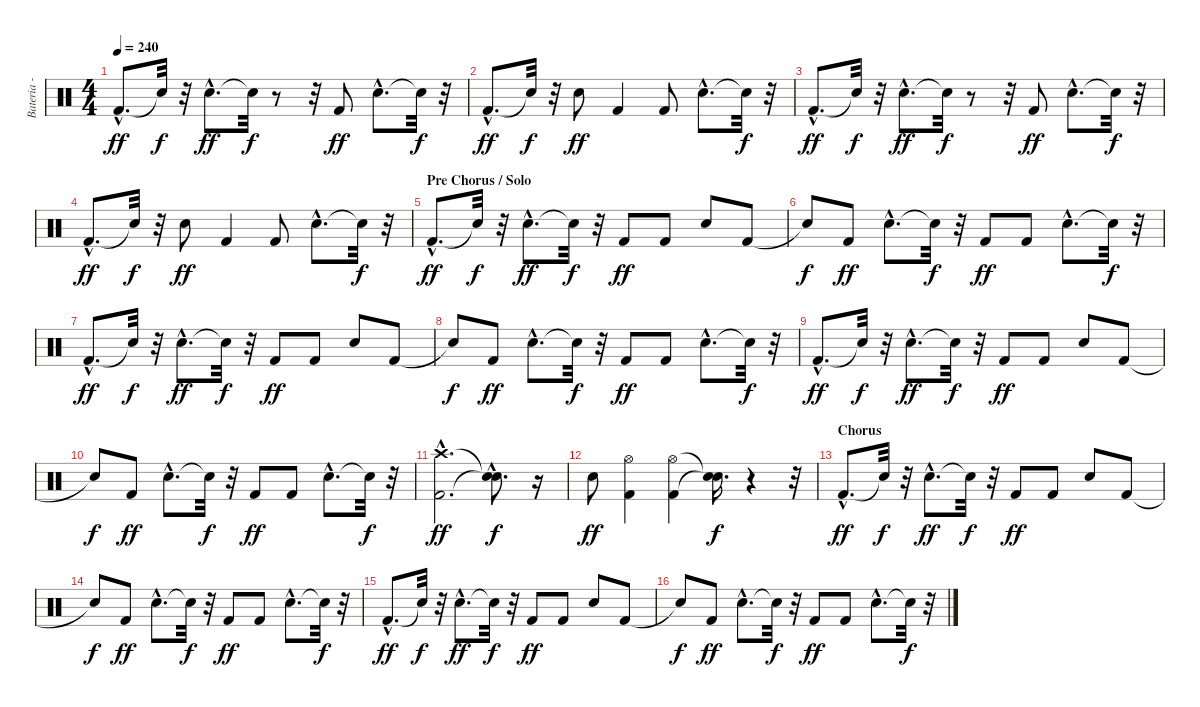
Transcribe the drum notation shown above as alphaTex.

\track ("Bateria - Larzon" "Bateria - ") {instrument percussion}
\staff {score}
\articulation defaults
\ts (4 4)
\tempo 240
\clef neutral
\ks c "Kick (hit) 2"{hac}.8{d dy ff} "Snare (hit)"{t}.32{dy f}
r.32 "Electric Snare (hit)"{hac}.8{d dy ff} "Snare (hit)"{t}.32{dy f} r.8 r.32 "Kick (hit) 2".8{dy ff} "Electric Snare (hit)"{hac}.8{d} "Snare (hit)"{t}.32{dy f} r.32 |
"Kick (hit) 2"{hac}.8{d dy ff} "Snare (hit)"{t}.32{dy f} r.32 "Electric Snare (hit)".8{dy ff} "Kick (hit) 2".4 "Kick (hit) 2".8 "Electric Snare (hit)"{hac}.8{d} "Snare (hit)"{t}.32{dy f} r.32 |
"Kick (hit) 2"{hac}.8{d dy ff} "Snare (hit)"{t}.32{dy f} r.32 "Electric Snare (hit)"{hac}.8{d dy ff} "Snare (hit)"{t}.32{dy f} r.8 r.32 "Kick (hit) 2".8{dy ff} "Electric Snare (hit)"{hac}.8{d} "Snare (hit)"{t}.32{dy f} r.32 |
"Kick (hit) 2"{hac}.8{d dy ff} "Snare (hit)"{t}.32{dy f} r.32 "Electric Snare (hit)".8{dy ff} "Kick (hit) 2".4 "Kick (hit) 2".8 "Electric Snare (hit)"{hac}.8{d} "Snare (hit)"{t}.32{dy f} r.32 |
\section ("" "Pre Chorus / Solo")
"Kick (hit) 2"{hac}.8{d dy ff} "Snare (hit)"{t}.32{dy f} r.32 "Electric Snare (hit)"{hac}.8{d dy ff} "Snare (hit)"{t}.32{dy f} r.32 "Kick (hit) 2".8{dy ff} "Kick (hit) 2".8 "Electric Snare (hit)".8 "Kick (hit) 2".8 |
"Snare (hit)"{t}.8{dy f} "Kick (hit) 2".8{dy ff} "Electric Snare (hit)"{hac}.8{d} "Snare (hit)"{t}.32{dy f} r.32 "Kick (hit) 2".8{dy ff} "Kick (hit) 2".8 "Electric Snare (hit)"{hac}.8{d} "Snare (hit)"{t}.32{dy f} r.32 |
"Kick (hit) 2"{hac}.8{d dy ff} "Snare (hit)"{t}.32{dy f} r.32 "Electric Snare (hit)"{hac}.8{d dy ff} "Snare (hit)"{t}.32{dy f} r.32 "Kick (hit) 2".8{dy ff} "Kick (hit) 2".8 "Electric Snare (hit)".8 "Kick (hit) 2".8 |
"Snare (hit)"{t}.8{dy f} "Kick (hit) 2".8{dy ff} "Electric Snare (hit)"{hac}.8{d} "Snare (hit)"{t}.32{dy f} r.32 "Kick (hit) 2".8{dy ff} "Kick (hit) 2".8 "Electric Snare (hit)"{hac}.8{d} "Snare (hit)"{t}.32{dy f} r.32 |
"Kick (hit) 2"{hac}.8{d dy ff} "Snare (hit)"{t}.32{dy f} r.32 "Electric Snare (hit)"{hac}.8{d dy ff} "Snare (hit)"{t}.32{dy f} r.32 "Kick (hit) 2".8{dy ff} "Kick (hit) 2".8 "Electric Snare (hit)".8 "Kick (hit) 2".8 |
"Snare (hit)"{t}.8{dy f} "Kick (hit) 2".8{dy ff} "Electric Snare (hit)"{hac}.8{d} "Snare (hit)"{t}.32{dy f} r.32 "Kick (hit) 2".8{dy ff} "Kick (hit) 2".8 "Electric Snare (hit)"{hac}.8{d} "Snare (hit)"{t}.32{dy f} r.32 |
("Kick (hit) 2"{hac} "Crash high (hit)"{hac}).2{d dy ff} ("Snare (hit)"{hac t} "Snare (hit)"{hac t}).8{d dy f} r.16 |
"Electric Snare (hit)".8{dy ff} ("Kick (hit) 2" "Hi-Hat (open)").4 ("Kick (hit) 2" "Hi-Hat (open)").4 ("Snare (hit)"{t} "Snare (hit)"{t}).16{d dy f} r.4 r.32 |
\section ("" "Chorus")
"Kick (hit) 2"{hac}.8{d dy ff} "Snare (hit)"{t}.32{dy f} r.32 "Electric Snare (hit)"{hac}.8{d dy ff} "Snare (hit)"{t}.32{dy f} r.32 "Kick (hit) 2".8{dy ff} "Kick (hit) 2".8 "Electric Snare (hit)".8 "Kick (hit) 2".8 |
"Snare (hit)"{t}.8{dy f} "Kick (hit) 2".8{dy ff} "Electric Snare (hit)"{hac}.8{d} "Snare (hit)"{t}.32{dy f} r.32 "Kick (hit) 2".8{dy ff} "Kick (hit) 2".8 "Electric Snare (hit)"{hac}.8{d} "Snare (hit)"{t}.32{dy f} r.32 |
"Kick (hit) 2"{hac}.8{d dy ff} "Snare (hit)"{t}.32{dy f} r.32 "Electric Snare (hit)"{hac}.8{d dy ff} "Snare (hit)"{t}.32{dy f} r.32 "Kick (hit) 2".8{dy ff} "Kick (hit) 2".8 "Electric Snare (hit)".8 "Kick (hit) 2".8 |
"Snare (hit)"{t}.8{dy f} "Kick (hit) 2".8{dy ff} "Electric Snare (hit)"{hac}.8{d} "Snare (hit)"{t}.32{dy f} r.32 "Kick (hit) 2".8{dy ff} "Kick (hit) 2".8 "Electric Snare (hit)"{hac}.8{d} "Snare (hit)"{t}.32{dy f} r.32
